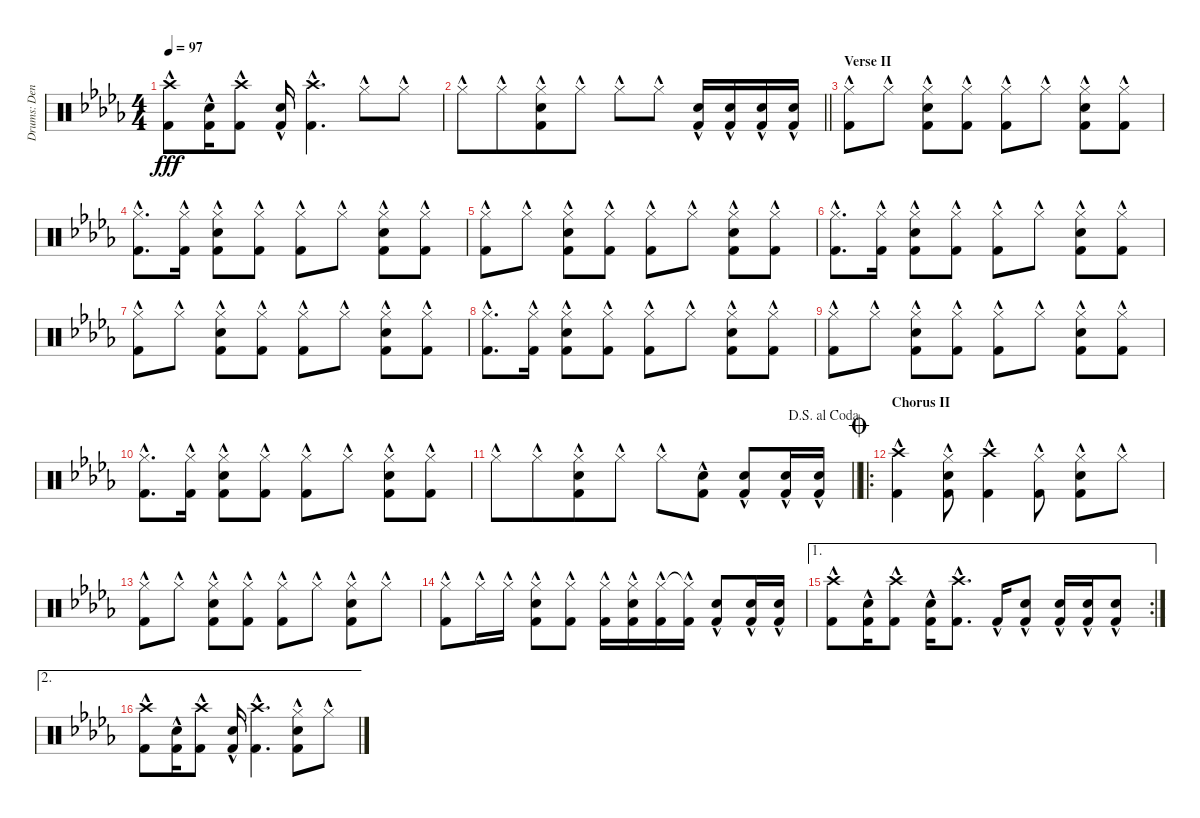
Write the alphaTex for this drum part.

\track ("Drums: Denny" "Drums: Den") {instrument percussion}
\staff {score}
\articulation defaults
\ts (4 4)
\tempo 97
\clef neutral
\ks db
("Crash high (hit)"{hac} "Kick (hit) 2"{hac}).8{dy fff} ("Snare (hit) 2"{hac} "Kick (hit) 2"{hac}).16 ("Crash high (hit)"{hac} "Kick (hit) 2"{hac}).8 ("Snare (hit) 2"{hac} "Kick (hit) 2"{hac}).16 ("Crash high (hit)"{hac} "Kick (hit) 2"{hac}).4{d} "Hi-Hat (closed)"{hac}.8 "Hi-Hat (closed)"{hac}.8 |
\barLineRight lightlight "Hi-Hat (closed)"{hac}.8 "Hi-Hat (closed)"{hac}.8{beam merge}
("Hi-Hat (closed)"{hac} "Snare (hit) 2"{hac} "Kick (hit) 2"{hac}).8 "Hi-Hat (closed)"{hac}.8 "Hi-Hat (closed)"{hac}.8 "Hi-Hat (closed)"{hac}.8 ("Snare (hit) 2"{hac} "Kick (hit) 2"{hac}).16 ("Snare (hit) 2"{hac} "Kick (hit) 2"{hac}).16 ("Snare (hit) 2"{hac} "Kick (hit) 2"{hac}).16 ("Snare (hit) 2"{hac} "Kick (hit) 2"{hac}).16 |
\section ("" "Verse II")
("Hi-Hat (closed)"{hac} "Kick (hit) 2"{hac}).8 "Hi-Hat (closed)"{hac}.8 ("Hi-Hat (closed)"{hac} "Snare (hit) 2"{hac} "Kick (hit) 2"{hac}).8 ("Hi-Hat (closed)"{hac} "Kick (hit) 2"{hac}).8 ("Hi-Hat (closed)"{hac} "Kick (hit) 2"{hac}).8 "Hi-Hat (closed)"{hac}.8 ("Hi-Hat (closed)"{hac} "Snare (hit) 2"{hac} "Kick (hit) 2"{hac}).8 ("Hi-Hat (closed)"{hac} "Kick (hit) 2"{hac}).8 |
("Hi-Hat (closed)"{hac} "Kick (hit) 2"{hac}).8{d} ("Hi-Hat (closed)"{hac} "Kick (hit) 2"{hac}).16 ("Hi-Hat (closed)"{hac} "Snare (hit) 2"{hac} "Kick (hit) 2"{hac}).8 ("Hi-Hat (closed)"{hac} "Kick (hit) 2"{hac}).8 ("Hi-Hat (closed)"{hac} "Kick (hit) 2"{hac}).8 "Hi-Hat (closed)"{hac}.8 ("Hi-Hat (closed)"{hac} "Snare (hit) 2"{hac} "Kick (hit) 2"{hac}).8 ("Hi-Hat (closed)"{hac} "Kick (hit) 2"{hac}).8 |
("Hi-Hat (closed)"{hac} "Kick (hit) 2"{hac}).8 "Hi-Hat (closed)"{hac}.8 ("Hi-Hat (closed)"{hac} "Snare (hit) 2"{hac} "Kick (hit) 2"{hac}).8 ("Hi-Hat (closed)"{hac} "Kick (hit) 2"{hac}).8 ("Hi-Hat (closed)"{hac} "Kick (hit) 2"{hac}).8 "Hi-Hat (closed)"{hac}.8 ("Hi-Hat (closed)"{hac} "Snare (hit) 2"{hac} "Kick (hit) 2"{hac}).8 ("Hi-Hat (closed)"{hac} "Kick (hit) 2"{hac}).8 |
("Hi-Hat (closed)"{hac} "Kick (hit) 2"{hac}).8{d} ("Hi-Hat (closed)"{hac} "Kick (hit) 2"{hac}).16 ("Hi-Hat (closed)"{hac} "Snare (hit) 2"{hac} "Kick (hit) 2"{hac}).8 ("Hi-Hat (closed)"{hac} "Kick (hit) 2"{hac}).8 ("Hi-Hat (closed)"{hac} "Kick (hit) 2"{hac}).8 "Hi-Hat (closed)"{hac}.8 ("Hi-Hat (closed)"{hac} "Snare (hit) 2"{hac} "Kick (hit) 2"{hac}).8 ("Hi-Hat (closed)"{hac} "Kick (hit) 2"{hac}).8 |
("Hi-Hat (closed)"{hac} "Kick (hit) 2"{hac}).8 "Hi-Hat (closed)"{hac}.8 ("Hi-Hat (closed)"{hac} "Snare (hit) 2"{hac} "Kick (hit) 2"{hac}).8 ("Hi-Hat (closed)"{hac} "Kick (hit) 2"{hac}).8 ("Hi-Hat (closed)"{hac} "Kick (hit) 2"{hac}).8 "Hi-Hat (closed)"{hac}.8 ("Hi-Hat (closed)"{hac} "Snare (hit) 2"{hac} "Kick (hit) 2"{hac}).8 ("Hi-Hat (closed)"{hac} "Kick (hit) 2"{hac}).8 |
("Hi-Hat (closed)"{hac} "Kick (hit) 2"{hac}).8{d} ("Hi-Hat (closed)"{hac} "Kick (hit) 2"{hac}).16 ("Hi-Hat (closed)"{hac} "Snare (hit) 2"{hac} "Kick (hit) 2"{hac}).8 ("Hi-Hat (closed)"{hac} "Kick (hit) 2"{hac}).8 ("Hi-Hat (closed)"{hac} "Kick (hit) 2"{hac}).8 "Hi-Hat (closed)"{hac}.8 ("Hi-Hat (closed)"{hac} "Snare (hit) 2"{hac} "Kick (hit) 2"{hac}).8 ("Hi-Hat (closed)"{hac} "Kick (hit) 2"{hac}).8 |
("Hi-Hat (closed)"{hac} "Kick (hit) 2"{hac}).8 "Hi-Hat (closed)"{hac}.8 ("Hi-Hat (closed)"{hac} "Snare (hit) 2"{hac} "Kick (hit) 2"{hac}).8 ("Hi-Hat (closed)"{hac} "Kick (hit) 2"{hac}).8 ("Hi-Hat (closed)"{hac} "Kick (hit) 2"{hac}).8 "Hi-Hat (closed)"{hac}.8 ("Hi-Hat (closed)"{hac} "Snare (hit) 2"{hac} "Kick (hit) 2"{hac}).8 ("Hi-Hat (closed)"{hac} "Kick (hit) 2"{hac}).8 |
("Hi-Hat (closed)"{hac} "Kick (hit) 2"{hac}).8{d} ("Hi-Hat (closed)"{hac} "Kick (hit) 2"{hac}).16 ("Hi-Hat (closed)"{hac} "Snare (hit) 2"{hac} "Kick (hit) 2"{hac}).8 ("Hi-Hat (closed)"{hac} "Kick (hit) 2"{hac}).8 ("Hi-Hat (closed)"{hac} "Kick (hit) 2"{hac}).8 "Hi-Hat (closed)"{hac}.8 ("Hi-Hat (closed)"{hac} "Snare (hit) 2"{hac} "Kick (hit) 2"{hac}).8 ("Hi-Hat (closed)"{hac} "Kick (hit) 2"{hac}).8 |
\jump dalsegnoalcoda
\barLineRight lightlight "Hi-Hat (closed)"{hac}.8 "Hi-Hat (closed)"{hac}.8{beam merge}
("Hi-Hat (closed)"{hac} "Snare (hit) 2"{hac} "Kick (hit) 2"{hac}).8 "Hi-Hat (closed)"{hac}.8 "Hi-Hat (closed)"{hac}.8 ("Snare (hit) 2"{hac} "Kick (hit) 2"{hac}).8 ("Snare (hit) 2"{hac} "Kick (hit) 2"{hac}).8 ("Snare (hit) 2"{hac} "Kick (hit) 2"{hac}).16 ("Snare (hit) 2"{hac} "Kick (hit) 2"{hac}).16 |
\ro
\section ("" "Chorus II")
\jump coda
("Crash high (hit)"{hac} "Kick (hit) 2"{hac}).4 ("Hi-Hat (closed)"{hac} "Snare (hit) 2"{hac} "Kick (hit) 2"{hac}).8 ("Crash high (hit)"{hac} "Kick (hit) 2"{hac}).4 ("Hi-Hat (closed)"{hac} "Kick (hit) 2"{hac}).8 ("Hi-Hat (closed)"{hac} "Snare (hit) 2"{hac} "Kick (hit) 2"{hac}).8 "Hi-Hat (closed)"{hac}.8 |
("Hi-Hat (closed)"{hac} "Kick (hit) 2"{hac}).8 "Hi-Hat (closed)"{hac}.8 ("Hi-Hat (closed)"{hac} "Snare (hit) 2"{hac} "Kick (hit) 2"{hac}).8 ("Hi-Hat (closed)"{hac} "Kick (hit) 2"{hac}).8 ("Hi-Hat (closed)"{hac} "Kick (hit) 2"{hac}).8 "Hi-Hat (closed)"{hac}.8 ("Hi-Hat (closed)"{hac} "Snare (hit) 2"{hac} "Kick (hit) 2"{hac}).8 "Hi-Hat (closed)"{hac}.8 |
("Hi-Hat (closed)"{hac} "Kick (hit) 2"{hac}).8 "Hi-Hat (closed)"{hac}.16 "Hi-Hat (closed)"{hac}.16 ("Hi-Hat (closed)"{hac} "Snare (hit) 2"{hac} "Kick (hit) 2"{hac}).8 ("Hi-Hat (closed)"{hac} "Kick (hit) 2"{hac}).8 ("Hi-Hat (closed)"{hac} "Kick (hit) 2"{hac}).16 ("Hi-Hat (closed)"{hac} "Snare (hit) 2"{hac} "Kick (hit) 2"{hac}).16 ("Hi-Hat (closed)"{hac} "Kick (hit) 2"{hac}).16 ("Hi-Hat (closed)"{t} "Kick (hit) 2"{hac}).16 ("Snare (hit) 2"{hac} "Kick (hit) 2"{hac}).8 ("Snare (hit) 2"{hac} "Kick (hit) 2"{hac}).16 ("Snare (hit) 2"{hac} "Kick (hit) 2"{hac}).16 |
\ae 1
\rc 2
("Crash high (hit)"{hac} "Kick (hit) 2"{hac}).8 ("Snare (hit) 2"{hac} "Kick (hit) 2"{hac}).16 ("Crash high (hit)"{hac} "Kick (hit) 2"{hac}).8 ("Snare (hit) 2"{hac} "Kick (hit) 2"{hac}).16 ("Crash high (hit)"{hac} "Kick (hit) 2"{hac}).8{d} "Kick (hit) 2"{hac}.16 ("Snare (hit) 2"{hac} "Kick (hit) 2"{hac}).8 ("Snare (hit) 2"{hac} "Kick (hit) 2"{hac}).16 ("Snare (hit) 2"{hac} "Kick (hit) 2"{hac}).16 ("Snare (hit) 2"{hac} "Kick (hit) 2"{hac}).8 |
\ae 2
("Crash high (hit)"{hac} "Kick (hit) 2"{hac}).8 ("Snare (hit) 2"{hac} "Kick (hit) 2"{hac}).16 ("Crash high (hit)"{hac} "Kick (hit) 2"{hac}).8 ("Snare (hit) 2"{hac} "Kick (hit) 2"{hac}).16 ("Crash high (hit)"{hac} "Kick (hit) 2"{hac}).4{d} ("Hi-Hat (closed)"{hac} "Snare (hit) 2"{hac} "Kick (hit) 2"{hac}).8 "Hi-Hat (closed)"{hac}.8
